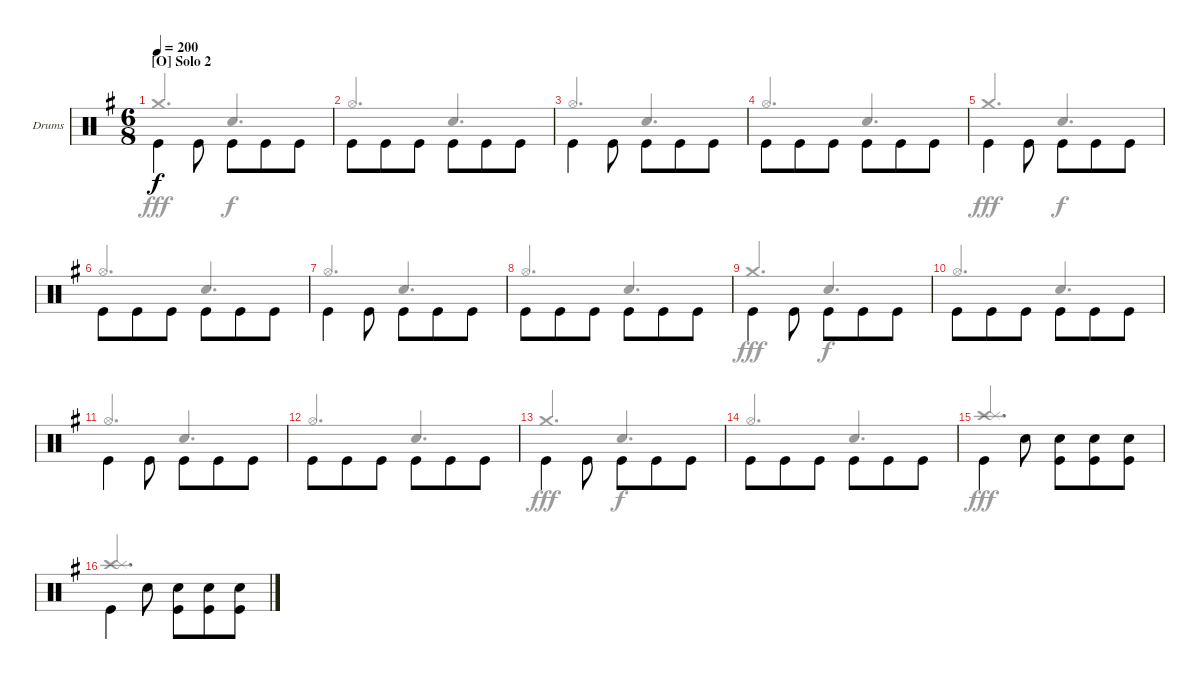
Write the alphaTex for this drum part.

\bracketExtendMode groupsimilarinstruments
\firstSystemTrackNameOrientation horizontal
\otherSystemsTrackNameOrientation horizontal
\track ("Drumkit" "Drums") {instrument percussion}
\staff {score}
\articulation defaults
\voice
\ts (6 8)
\section ("O" "Solo 2")
\tempo 200
\clef neutral
\ks eminor "Kick (hit)".4{dy f beam invert} "Kick (hit)".8{beam invert} "Kick (hit)".8{beam invert} "Kick (hit)".8 "Kick (hit)".8
|
"Kick (hit)".8{beam invert} "Kick (hit)".8 "Kick (hit)".8 "Kick (hit)".8{beam invert} "Kick (hit)".8 "Kick (hit)".8 |
"Kick (hit)".4{beam invert} "Kick (hit)".8{beam invert} "Kick (hit)".8{beam invert} "Kick (hit)".8 "Kick (hit)".8 |
"Kick (hit)".8{beam invert} "Kick (hit)".8 "Kick (hit)".8 "Kick (hit)".8{beam invert} "Kick (hit)".8 "Kick (hit)".8 |
"Kick (hit)".4{beam invert} "Kick (hit)".8{beam invert} "Kick (hit)".8{beam invert} "Kick (hit)".8 "Kick (hit)".8 |
"Kick (hit)".8{beam invert} "Kick (hit)".8 "Kick (hit)".8 "Kick (hit)".8{beam invert} "Kick (hit)".8 "Kick (hit)".8 |
"Kick (hit)".4{beam invert} "Kick (hit)".8{beam invert} "Kick (hit)".8{beam invert} "Kick (hit)".8 "Kick (hit)".8 |
"Kick (hit)".8{beam invert} "Kick (hit)".8 "Kick (hit)".8 "Kick (hit)".8{beam invert} "Kick (hit)".8 "Kick (hit)".8 |
"Kick (hit)".4{beam invert} "Kick (hit)".8{beam invert} "Kick (hit)".8{beam invert} "Kick (hit)".8 "Kick (hit)".8 |
"Kick (hit)".8{beam invert} "Kick (hit)".8 "Kick (hit)".8 "Kick (hit)".8{beam invert} "Kick (hit)".8 "Kick (hit)".8 |
"Kick (hit)".4{beam invert} "Kick (hit)".8{beam invert} "Kick (hit)".8{beam invert} "Kick (hit)".8 "Kick (hit)".8 |
"Kick (hit)".8{beam invert} "Kick (hit)".8 "Kick (hit)".8 "Kick (hit)".8{beam invert} "Kick (hit)".8 "Kick (hit)".8 |
"Kick (hit)".4{beam invert} "Kick (hit)".8{beam invert} "Kick (hit)".8{beam invert} "Kick (hit)".8 "Kick (hit)".8 |
"Kick (hit)".8{beam invert} "Kick (hit)".8 "Kick (hit)".8 "Kick (hit)".8{beam invert} "Kick (hit)".8 "Kick (hit)".8 |
"Kick (hit)".4{beam invert} "Snare (hit) 2".8{beam invert} ("Kick (hit)" "Snare (hit) 2").8{beam invert} ("Kick (hit)" "Snare (hit) 2").8 ("Kick (hit)" "Snare (hit) 2").8 |
"Kick (hit)".4{beam invert} "Snare (hit) 2".8{beam invert} ("Kick (hit)" "Snare (hit) 2").8{beam invert} ("Kick (hit)" "Snare (hit) 2").8 ("Kick (hit)" "Snare (hit) 2").8
\voice
\clef neutral
\ottava regular
\simile none
\ks eminor "Crash medium (hit)".4{d dy fff beam invert} "Snare (hit) 2".4{d dy f beam invert}
|
"Hi-Hat (open)".4{d beam invert} "Snare (hit) 2".4{d beam invert} |
"Hi-Hat (open)".4{d beam invert} "Snare (hit) 2".4{d beam invert} |
"Hi-Hat (open)".4{d beam invert} "Snare (hit) 2".4{d beam invert} |
"Crash medium (hit)".4{d dy fff beam invert} "Snare (hit) 2".4{d dy f beam invert} |
"Hi-Hat (open)".4{d beam invert} "Snare (hit) 2".4{d beam invert} |
"Hi-Hat (open)".4{d beam invert} "Snare (hit) 2".4{d beam invert} |
"Hi-Hat (open)".4{d beam invert} "Snare (hit) 2".4{d beam invert} |
"Crash medium (hit)".4{d dy fff beam invert} "Snare (hit) 2".4{d dy f beam invert} |
"Hi-Hat (open)".4{d beam invert} "Snare (hit) 2".4{d beam invert} |
"Hi-Hat (open)".4{d beam invert} "Snare (hit) 2".4{d beam invert} |
"Hi-Hat (open)".4{d beam invert} "Snare (hit) 2".4{d beam invert} |
"Crash medium (hit)".4{d dy fff beam invert} "Snare (hit) 2".4{d dy f beam invert} |
"Hi-Hat (open)".4{d beam invert} "Snare (hit) 2".4{d beam invert} |
("Crash high (hit)" "Splash (hit)").2{d dy fff beam invert} |
("Crash high (hit)" "Splash (hit)").2{d beam invert}
